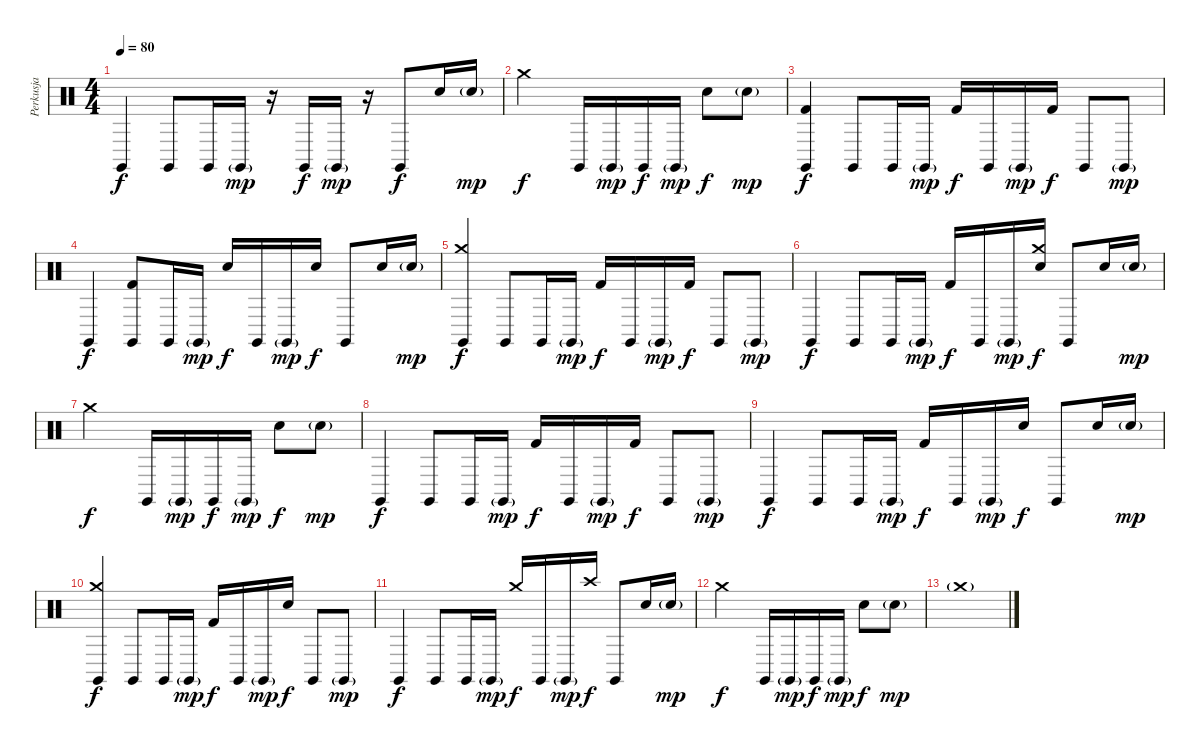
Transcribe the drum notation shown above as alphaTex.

\track ("Perkusja" "Perkusja") {instrument percussion}
\staff {score}
\articulation defaults
\ts (4 4)
\tempo 80
\clef neutral
\ks c "Claves (hit)".4{dy f} "Claves (hit)".8 "Claves (hit)".16 "Claves (hit)"{g}.16{dy mp}
r.16 "Claves (hit)".16{dy f} "Claves (hit)"{g}.16{dy mp} r.16 "Claves (hit)".8{dy f} "Snare (hit) 2".16 "Snare (hit) 2"{g}.16{dy mp} |
"Crash medium (hit)".2{dy f} "Claves (hit)".16 "Claves (hit)"{g}.16{dy mp} "Claves (hit)".16{dy f} "Claves (hit)"{g}.16{dy mp} "Snare (hit) 2".8{dy f} "Snare (hit) 2"{g}.8{dy mp} |
("Claves (hit)" "Kick (hit) 2").4{dy f} "Claves (hit)".8 "Claves (hit)".16 "Claves (hit)"{g}.16{dy mp} "Kick (hit) 2".16{dy f} "Claves (hit)".16 "Claves (hit)"{g}.16{dy mp} "Kick (hit) 2".16{dy f} "Claves (hit)".8 "Claves (hit)"{g}.8{dy mp} |
"Claves (hit)".4{dy f} ("Claves (hit)" "Kick (hit) 2").8 "Claves (hit)".16 "Claves (hit)"{g}.16{dy mp} "Snare (hit) 2".16{dy f} "Claves (hit)".16 "Claves (hit)"{g}.16{dy mp} "Snare (hit) 2".16{dy f} "Claves (hit)".8 "Snare (hit) 2".16 "Snare (hit) 2"{g}.16{dy mp} |
("Crash medium (hit)" "Claves (hit)").4{dy f} "Claves (hit)".8 "Claves (hit)".16 "Claves (hit)"{g}.16{dy mp} "Kick (hit) 2".16{dy f} "Claves (hit)".16 "Claves (hit)"{g}.16{dy mp} "Kick (hit) 2".16{dy f} "Claves (hit)".8 "Claves (hit)"{g}.8{dy mp} |
"Claves (hit)".4{dy f} "Claves (hit)".8 "Claves (hit)".16 "Claves (hit)"{g}.16{dy mp} "Kick (hit) 2".16{dy f} "Claves (hit)".16 "Claves (hit)"{g}.16{dy mp} ("Crash medium (hit)" "Electric Snare (hit)").16{dy f} "Claves (hit)".8 "Snare (hit) 2".16 "Snare (hit) 2"{g}.16{dy mp} |
"Crash medium (hit)".2{dy f} "Claves (hit)".16 "Claves (hit)"{g}.16{dy mp} "Claves (hit)".16{dy f} "Claves (hit)"{g}.16{dy mp} "Snare (hit) 2".8{dy f} "Snare (hit) 2"{g}.8{dy mp} |
"Claves (hit)".4{dy f} "Claves (hit)".8 "Claves (hit)".16 "Claves (hit)"{g}.16{dy mp} "Kick (hit) 2".16{dy f} "Claves (hit)".16 "Claves (hit)"{g}.16{dy mp} "Kick (hit) 2".16{dy f} "Claves (hit)".8 "Claves (hit)"{g}.8{dy mp} |
"Claves (hit)".4{dy f} "Claves (hit)".8 "Claves (hit)".16 "Claves (hit)"{g}.16{dy mp} "Kick (hit) 2".16{dy f} "Claves (hit)".16 "Claves (hit)"{g}.16{dy mp} "Electric Snare (hit)".16{dy f} "Claves (hit)".8 "Snare (hit) 2".16 "Snare (hit) 2"{g}.16{dy mp} |
("Crash medium (hit)" "Claves (hit)").4{dy f} "Claves (hit)".8 "Claves (hit)".16 "Claves (hit)"{g}.16{dy mp} "Kick (hit) 2".16{dy f} "Claves (hit)".16 "Claves (hit)"{g}.16{dy mp} "Snare (hit) 2".16{dy f} "Claves (hit)".8 "Claves (hit)"{g}.8{dy mp} |
"Claves (hit)".4{dy f} "Claves (hit)".8 "Claves (hit)".16 "Claves (hit)"{g}.16{dy mp} "Crash medium (hit)".16{dy f} "Claves (hit)".16 "Claves (hit)"{g}.16{dy mp} "Crash high (hit)".16{dy f} "Claves (hit)".8 "Snare (hit) 2".16 "Snare (hit) 2"{g}.16{dy mp} |
"Crash medium (hit)".2{dy f} "Claves (hit)".16 "Claves (hit)"{g}.16{dy mp} "Claves (hit)".16{dy f} "Claves (hit)"{g}.16{dy mp} "Snare (hit) 2".8{dy f} "Snare (hit) 2"{g}.8{dy mp} |
"Crash medium (hit)"{g}.1
